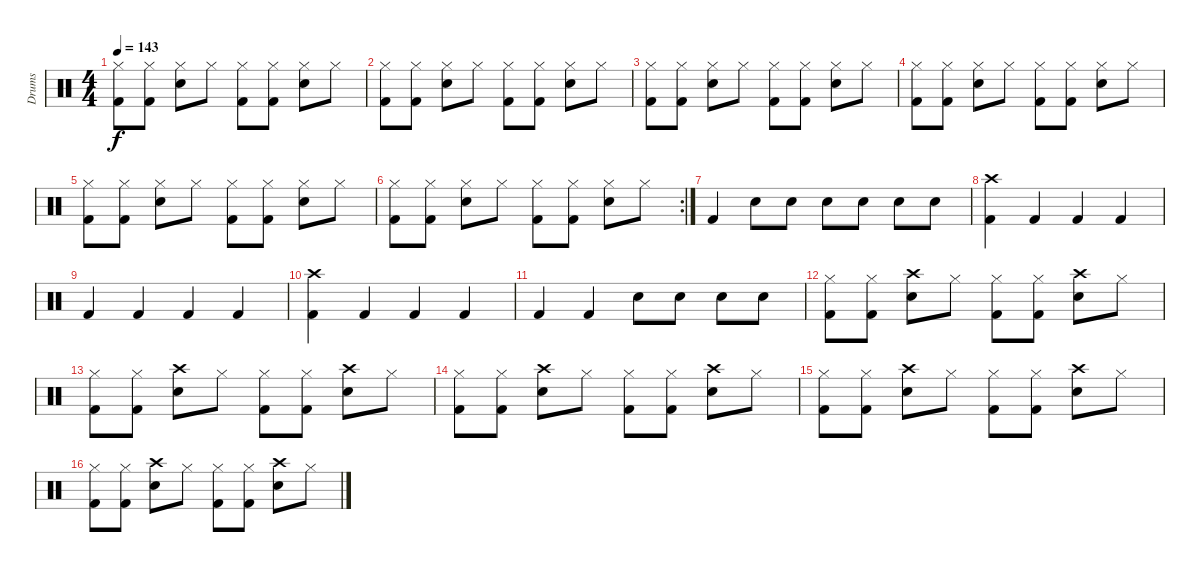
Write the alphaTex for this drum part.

\track ("Drums" "Drums") {instrument percussion}
\staff {score}
\articulation defaults
\ts (4 4)
\tempo 143
\clef neutral
\ks c
("Hi-Hat (closed)" "Kick (hit) 2").8{dy f} ("Hi-Hat (closed)" "Kick (hit) 2").8 ("Hi-Hat (closed)" "Electric Snare (hit)").8 "Hi-Hat (closed)".8 ("Hi-Hat (closed)" "Kick (hit) 2").8 ("Hi-Hat (closed)" "Kick (hit) 2").8 ("Hi-Hat (closed)" "Electric Snare (hit)").8 "Hi-Hat (closed)".8 |
("Hi-Hat (closed)" "Kick (hit) 2").8 ("Hi-Hat (closed)" "Kick (hit) 2").8 ("Hi-Hat (closed)" "Electric Snare (hit)").8 "Hi-Hat (closed)".8 ("Hi-Hat (closed)" "Kick (hit) 2").8 ("Hi-Hat (closed)" "Kick (hit) 2").8 ("Hi-Hat (closed)" "Electric Snare (hit)").8 "Hi-Hat (closed)".8 |
("Hi-Hat (closed)" "Kick (hit) 2").8 ("Hi-Hat (closed)" "Kick (hit) 2").8 ("Hi-Hat (closed)" "Electric Snare (hit)").8 "Hi-Hat (closed)".8 ("Hi-Hat (closed)" "Kick (hit) 2").8 ("Hi-Hat (closed)" "Kick (hit) 2").8 ("Hi-Hat (closed)" "Electric Snare (hit)").8 "Hi-Hat (closed)".8 |
("Hi-Hat (closed)" "Kick (hit) 2").8 ("Hi-Hat (closed)" "Kick (hit) 2").8 ("Hi-Hat (closed)" "Electric Snare (hit)").8 "Hi-Hat (closed)".8 ("Hi-Hat (closed)" "Kick (hit) 2").8 ("Hi-Hat (closed)" "Kick (hit) 2").8 ("Hi-Hat (closed)" "Electric Snare (hit)").8 "Hi-Hat (closed)".8 |
("Hi-Hat (closed)" "Kick (hit) 2").8 ("Hi-Hat (closed)" "Kick (hit) 2").8 ("Hi-Hat (closed)" "Electric Snare (hit)").8 "Hi-Hat (closed)".8 ("Hi-Hat (closed)" "Kick (hit) 2").8 ("Hi-Hat (closed)" "Kick (hit) 2").8 ("Hi-Hat (closed)" "Electric Snare (hit)").8 "Hi-Hat (closed)".8 |
\rc 2
("Hi-Hat (closed)" "Kick (hit) 2").8 ("Hi-Hat (closed)" "Kick (hit) 2").8 ("Hi-Hat (closed)" "Electric Snare (hit)").8 "Hi-Hat (closed)".8 ("Hi-Hat (closed)" "Kick (hit) 2").8 ("Hi-Hat (closed)" "Kick (hit) 2").8 ("Hi-Hat (closed)" "Electric Snare (hit)").8 "Hi-Hat (closed)".8 |
"Kick (hit) 2".4 "Snare (hit) 2".8 "Snare (hit) 2".8 "Snare (hit) 2".8 "Electric Snare (hit)".8 "Electric Snare (hit)".8 "Electric Snare (hit)".8 |
("Crash high (hit)" "Kick (hit) 2").4 "Kick (hit) 2".4 "Kick (hit) 2".4 "Kick (hit) 2".4 |
"Kick (hit) 2".4 "Kick (hit) 2".4 "Kick (hit) 2".4 "Kick (hit) 2".4 |
("Crash high (hit)" "Kick (hit) 2").4 "Kick (hit) 2".4 "Kick (hit) 2".4 "Kick (hit) 2".4 |
"Kick (hit) 2".4 "Kick (hit) 2".4 "Snare (hit) 2".8 "Snare (hit) 2".8 "Electric Snare (hit)".8 "Electric Snare (hit)".8 |
("Hi-Hat (closed)" "Kick (hit) 2").8 ("Hi-Hat (closed)" "Kick (hit) 2").8 ("Crash high (hit)" "Electric Snare (hit)").8 "Hi-Hat (closed)".8 ("Hi-Hat (closed)" "Kick (hit) 2").8 ("Hi-Hat (closed)" "Kick (hit) 2").8 ("Crash high (hit)" "Electric Snare (hit)").8 "Hi-Hat (closed)".8 |
("Hi-Hat (closed)" "Kick (hit) 2").8 ("Hi-Hat (closed)" "Kick (hit) 2").8 ("Crash high (hit)" "Electric Snare (hit)").8 "Hi-Hat (closed)".8 ("Hi-Hat (closed)" "Kick (hit) 2").8 ("Hi-Hat (closed)" "Kick (hit) 2").8 ("Crash high (hit)" "Electric Snare (hit)").8 "Hi-Hat (closed)".8 |
("Hi-Hat (closed)" "Kick (hit) 2").8 ("Hi-Hat (closed)" "Kick (hit) 2").8 ("Crash high (hit)" "Electric Snare (hit)").8 "Hi-Hat (closed)".8 ("Hi-Hat (closed)" "Kick (hit) 2").8 ("Hi-Hat (closed)" "Kick (hit) 2").8 ("Crash high (hit)" "Electric Snare (hit)").8 "Hi-Hat (closed)".8 |
("Hi-Hat (closed)" "Kick (hit) 2").8 ("Hi-Hat (closed)" "Kick (hit) 2").8 ("Crash high (hit)" "Electric Snare (hit)").8 "Hi-Hat (closed)".8 ("Hi-Hat (closed)" "Kick (hit) 2").8 ("Hi-Hat (closed)" "Kick (hit) 2").8 ("Crash high (hit)" "Electric Snare (hit)").8 "Hi-Hat (closed)".8 |
("Hi-Hat (closed)" "Kick (hit) 2").8 ("Hi-Hat (closed)" "Kick (hit) 2").8 ("Crash high (hit)" "Electric Snare (hit)").8 "Hi-Hat (closed)".8 ("Hi-Hat (closed)" "Kick (hit) 2").8 ("Hi-Hat (closed)" "Kick (hit) 2").8 ("Crash high (hit)" "Electric Snare (hit)").8 "Hi-Hat (closed)".8
